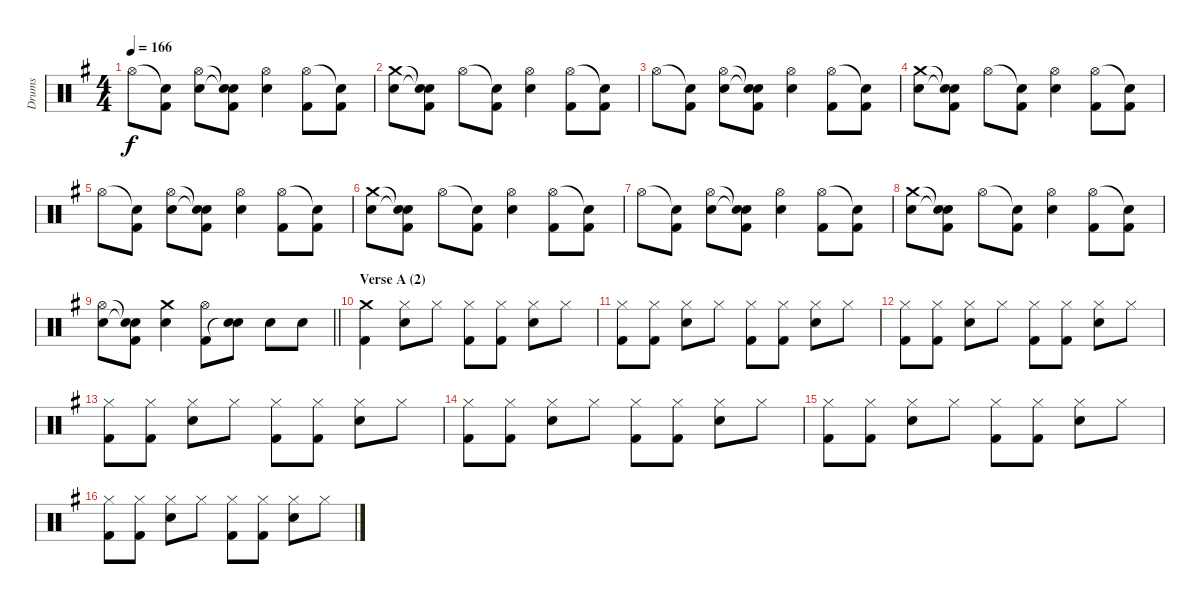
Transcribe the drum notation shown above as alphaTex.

\track ("Drums" "Drums") {instrument percussion}
\staff {score}
\articulation defaults
\ts (4 4)
\tempo 166
\clef neutral
\ks g "Hi-Hat (open)".8{dy f}
("Snare (hit)"{t} "Kick (hit) 2").8 ("Hi-Hat (open)" "Electric Snare (hit)").8 ("Snare (hit)"{t} "Snare (hit)"{t} "Kick (hit) 2").8 ("Hi-Hat (open)" "Electric Snare (hit)").4 ("Hi-Hat (open)" "Kick (hit) 2").8 ("Snare (hit)"{t} "Kick (hit) 2").8 |
("Crash medium (hit)" "Electric Snare (hit)").8 ("Snare (hit)"{t} "Snare (hit)"{t} "Kick (hit) 2").8 "Hi-Hat (open)".8 ("Snare (hit)"{t} "Kick (hit) 2").8 ("Hi-Hat (open)" "Electric Snare (hit)").4 ("Hi-Hat (open)" "Kick (hit) 2").8 ("Snare (hit)"{t} "Kick (hit) 2").8 |
"Hi-Hat (open)".8 ("Snare (hit)"{t} "Kick (hit) 2").8 ("Hi-Hat (open)" "Electric Snare (hit)").8 ("Snare (hit)"{t} "Snare (hit)"{t} "Kick (hit) 2").8 ("Hi-Hat (open)" "Electric Snare (hit)").4 ("Hi-Hat (open)" "Kick (hit) 2").8 ("Snare (hit)"{t} "Kick (hit) 2").8 |
("Crash medium (hit)" "Electric Snare (hit)").8 ("Snare (hit)"{t} "Snare (hit)"{t} "Kick (hit) 2").8 "Hi-Hat (open)".8 ("Snare (hit)"{t} "Kick (hit) 2").8 ("Hi-Hat (open)" "Electric Snare (hit)").4 ("Hi-Hat (open)" "Kick (hit) 2").8 ("Snare (hit)"{t} "Kick (hit) 2").8 |
"Hi-Hat (open)".8 ("Snare (hit)"{t} "Kick (hit) 2").8 ("Hi-Hat (open)" "Electric Snare (hit)").8 ("Snare (hit)"{t} "Snare (hit)"{t} "Kick (hit) 2").8 ("Hi-Hat (open)" "Electric Snare (hit)").4 ("Hi-Hat (open)" "Kick (hit) 2").8 ("Snare (hit)"{t} "Kick (hit) 2").8 |
("Crash medium (hit)" "Electric Snare (hit)").8 ("Snare (hit)"{t} "Snare (hit)"{t} "Kick (hit) 2").8 "Hi-Hat (open)".8 ("Snare (hit)"{t} "Kick (hit) 2").8 ("Hi-Hat (open)" "Electric Snare (hit)").4 ("Hi-Hat (open)" "Kick (hit) 2").8 ("Snare (hit)"{t} "Kick (hit) 2").8 |
"Hi-Hat (open)".8 ("Snare (hit)"{t} "Kick (hit) 2").8 ("Hi-Hat (open)" "Electric Snare (hit)").8 ("Snare (hit)"{t} "Snare (hit)"{t} "Kick (hit) 2").8 ("Hi-Hat (open)" "Electric Snare (hit)").4 ("Hi-Hat (open)" "Kick (hit) 2").8 ("Snare (hit)"{t} "Kick (hit) 2").8 |
("Crash medium (hit)" "Electric Snare (hit)").8 ("Snare (hit)"{t} "Snare (hit)"{t} "Kick (hit) 2").8 "Hi-Hat (open)".8 ("Snare (hit)"{t} "Kick (hit) 2").8 ("Hi-Hat (open)" "Electric Snare (hit)").4 ("Hi-Hat (open)" "Kick (hit) 2").8 ("Snare (hit)"{t} "Kick (hit) 2").8 |
\barLineRight lightlight
("Hi-Hat (open)" "Electric Snare (hit)").8 ("Snare (hit)"{t} "Snare (hit)"{t} "Kick (hit) 2").8 ("Crash medium (hit)" "Electric Snare (hit)").4 ("Hi-Hat (open)" "Kick (hit) 2").8 ("Electric Snare (hit)" "Snare (hit)"{t}).8 "Electric Snare (hit)".8 "Electric Snare (hit)".8 |
\section ("" "Verse A (2)")
("Crash medium (hit)" "Kick (hit) 2").4 ("Hi-Hat (closed)" "Electric Snare (hit)").8 "Hi-Hat (closed)".8 ("Hi-Hat (closed)" "Kick (hit) 2").8 ("Hi-Hat (closed)" "Kick (hit) 2").8 ("Hi-Hat (closed)" "Electric Snare (hit)").8 "Hi-Hat (closed)".8 |
("Hi-Hat (closed)" "Kick (hit) 2").8 ("Hi-Hat (closed)" "Kick (hit) 2").8 ("Hi-Hat (closed)" "Electric Snare (hit)").8 "Hi-Hat (closed)".8 ("Hi-Hat (closed)" "Kick (hit) 2").8 ("Hi-Hat (closed)" "Kick (hit) 2").8 ("Hi-Hat (closed)" "Electric Snare (hit)").8 "Hi-Hat (closed)".8 |
("Hi-Hat (closed)" "Kick (hit) 2").8 ("Hi-Hat (closed)" "Kick (hit) 2").8 ("Hi-Hat (closed)" "Electric Snare (hit)").8 "Hi-Hat (closed)".8 ("Hi-Hat (closed)" "Kick (hit) 2").8 ("Hi-Hat (closed)" "Kick (hit) 2").8 ("Hi-Hat (closed)" "Electric Snare (hit)").8 "Hi-Hat (closed)".8 |
("Hi-Hat (closed)" "Kick (hit) 2").8 ("Hi-Hat (closed)" "Kick (hit) 2").8 ("Hi-Hat (closed)" "Electric Snare (hit)").8 "Hi-Hat (closed)".8 ("Hi-Hat (closed)" "Kick (hit) 2").8 ("Hi-Hat (closed)" "Kick (hit) 2").8 ("Hi-Hat (closed)" "Electric Snare (hit)").8 "Hi-Hat (closed)".8 |
("Hi-Hat (closed)" "Kick (hit) 2").8 ("Hi-Hat (closed)" "Kick (hit) 2").8 ("Hi-Hat (closed)" "Electric Snare (hit)").8 "Hi-Hat (closed)".8 ("Hi-Hat (closed)" "Kick (hit) 2").8 ("Hi-Hat (closed)" "Kick (hit) 2").8 ("Hi-Hat (closed)" "Electric Snare (hit)").8 "Hi-Hat (closed)".8 |
("Hi-Hat (closed)" "Kick (hit) 2").8 ("Hi-Hat (closed)" "Kick (hit) 2").8 ("Hi-Hat (closed)" "Electric Snare (hit)").8 "Hi-Hat (closed)".8 ("Hi-Hat (closed)" "Kick (hit) 2").8 ("Hi-Hat (closed)" "Kick (hit) 2").8 ("Hi-Hat (closed)" "Electric Snare (hit)").8 "Hi-Hat (closed)".8 |
("Hi-Hat (closed)" "Kick (hit) 2").8 ("Hi-Hat (closed)" "Kick (hit) 2").8 ("Hi-Hat (closed)" "Electric Snare (hit)").8 "Hi-Hat (closed)".8 ("Hi-Hat (closed)" "Kick (hit) 2").8 ("Hi-Hat (closed)" "Kick (hit) 2").8 ("Hi-Hat (closed)" "Electric Snare (hit)").8 "Hi-Hat (closed)".8
